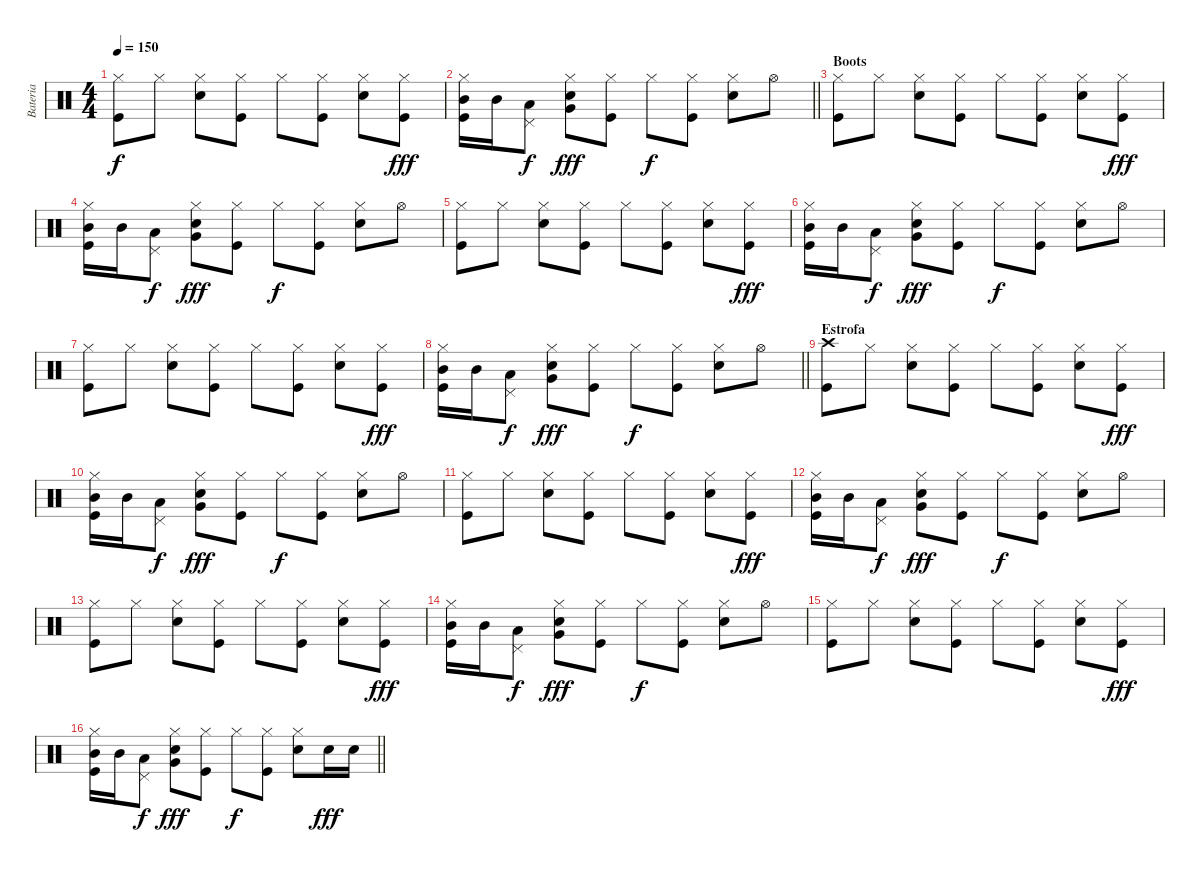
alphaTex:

\track ("Bateria" "Bateria") {instrument percussion}
\staff {score}
\articulation defaults
\ts (4 4)
\tempo 150
\clef neutral
\ks c
("Hi-Hat (closed)" "Kick (hit)").8{dy f} "Hi-Hat (closed)".8 ("Hi-Hat (closed)" "Electric Snare (hit)").8 ("Hi-Hat (closed)" "Kick (hit)").8 "Hi-Hat (closed)".8 ("Hi-Hat (closed)" "Kick (hit)").8 ("Hi-Hat (closed)" "Electric Snare (hit)").8 ("Hi-Hat (closed)" "Kick (hit)").8{dy fff} |
\barLineRight lightlight
("Hi-Hat (closed)" "Kick (hit)" "Mid Tom (hit)").16 "Mid Tom (hit)".16 ("Pedal Hi-Hat (hit)" "Low Tom (hit)").8{dy f} ("Hi-Hat (closed)" "Very Low Tom (hit)" "Electric Snare (hit)").8{dy fff} ("Hi-Hat (closed)" "Kick (hit)").8 "Hi-Hat (closed)".8{dy f} ("Hi-Hat (closed)" "Kick (hit)").8 ("Hi-Hat (closed)" "Electric Snare (hit)").8 "Hi-Hat (open)".8 |
\section ("" "Boots")
("Hi-Hat (closed)" "Kick (hit)").8 "Hi-Hat (closed)".8 ("Hi-Hat (closed)" "Electric Snare (hit)").8 ("Hi-Hat (closed)" "Kick (hit)").8 "Hi-Hat (closed)".8 ("Hi-Hat (closed)" "Kick (hit)").8 ("Hi-Hat (closed)" "Electric Snare (hit)").8 ("Hi-Hat (closed)" "Kick (hit)").8{dy fff} |
("Hi-Hat (closed)" "Kick (hit)" "Mid Tom (hit)").16 "Mid Tom (hit)".16 ("Pedal Hi-Hat (hit)" "Low Tom (hit)").8{dy f} ("Hi-Hat (closed)" "Very Low Tom (hit)" "Electric Snare (hit)").8{dy fff} ("Hi-Hat (closed)" "Kick (hit)").8 "Hi-Hat (closed)".8{dy f} ("Hi-Hat (closed)" "Kick (hit)").8 ("Hi-Hat (closed)" "Electric Snare (hit)").8 "Hi-Hat (open)".8 |
("Hi-Hat (closed)" "Kick (hit)").8 "Hi-Hat (closed)".8 ("Hi-Hat (closed)" "Electric Snare (hit)").8 ("Hi-Hat (closed)" "Kick (hit)").8 "Hi-Hat (closed)".8 ("Hi-Hat (closed)" "Kick (hit)").8 ("Hi-Hat (closed)" "Electric Snare (hit)").8 ("Hi-Hat (closed)" "Kick (hit)").8{dy fff} |
("Hi-Hat (closed)" "Kick (hit)" "Mid Tom (hit)").16 "Mid Tom (hit)".16 ("Pedal Hi-Hat (hit)" "Low Tom (hit)").8{dy f} ("Hi-Hat (closed)" "Very Low Tom (hit)" "Electric Snare (hit)").8{dy fff} ("Hi-Hat (closed)" "Kick (hit)").8 "Hi-Hat (closed)".8{dy f} ("Hi-Hat (closed)" "Kick (hit)").8 ("Hi-Hat (closed)" "Electric Snare (hit)").8 "Hi-Hat (open)".8 |
("Hi-Hat (closed)" "Kick (hit)").8 "Hi-Hat (closed)".8 ("Hi-Hat (closed)" "Electric Snare (hit)").8 ("Hi-Hat (closed)" "Kick (hit)").8 "Hi-Hat (closed)".8 ("Hi-Hat (closed)" "Kick (hit)").8 ("Hi-Hat (closed)" "Electric Snare (hit)").8 ("Hi-Hat (closed)" "Kick (hit)").8{dy fff} |
\barLineRight lightlight
("Hi-Hat (closed)" "Kick (hit)" "Mid Tom (hit)").16 "Mid Tom (hit)".16 ("Pedal Hi-Hat (hit)" "Low Tom (hit)").8{dy f} ("Hi-Hat (closed)" "Very Low Tom (hit)" "Electric Snare (hit)").8{dy fff} ("Hi-Hat (closed)" "Kick (hit)").8 "Hi-Hat (closed)".8{dy f} ("Hi-Hat (closed)" "Kick (hit)").8 ("Hi-Hat (closed)" "Electric Snare (hit)").8 "Hi-Hat (open)".8 |
\section ("" "Estrofa")
("Crash high (hit)" "Kick (hit)").8 "Hi-Hat (closed)".8 ("Hi-Hat (closed)" "Electric Snare (hit)").8 ("Hi-Hat (closed)" "Kick (hit)").8 "Hi-Hat (closed)".8 ("Hi-Hat (closed)" "Kick (hit)").8 ("Hi-Hat (closed)" "Electric Snare (hit)").8 ("Hi-Hat (closed)" "Kick (hit)").8{dy fff} |
("Hi-Hat (closed)" "Kick (hit)" "Mid Tom (hit)").16 "Mid Tom (hit)".16 ("Pedal Hi-Hat (hit)" "Low Tom (hit)").8{dy f} ("Hi-Hat (closed)" "Very Low Tom (hit)" "Electric Snare (hit)").8{dy fff} ("Hi-Hat (closed)" "Kick (hit)").8 "Hi-Hat (closed)".8{dy f} ("Hi-Hat (closed)" "Kick (hit)").8 ("Hi-Hat (closed)" "Electric Snare (hit)").8 "Hi-Hat (open)".8 |
("Hi-Hat (closed)" "Kick (hit)").8 "Hi-Hat (closed)".8 ("Hi-Hat (closed)" "Electric Snare (hit)").8 ("Hi-Hat (closed)" "Kick (hit)").8 "Hi-Hat (closed)".8 ("Hi-Hat (closed)" "Kick (hit)").8 ("Hi-Hat (closed)" "Electric Snare (hit)").8 ("Hi-Hat (closed)" "Kick (hit)").8{dy fff} |
("Hi-Hat (closed)" "Kick (hit)" "Mid Tom (hit)").16 "Mid Tom (hit)".16 ("Pedal Hi-Hat (hit)" "Low Tom (hit)").8{dy f} ("Hi-Hat (closed)" "Very Low Tom (hit)" "Electric Snare (hit)").8{dy fff} ("Hi-Hat (closed)" "Kick (hit)").8 "Hi-Hat (closed)".8{dy f} ("Hi-Hat (closed)" "Kick (hit)").8 ("Hi-Hat (closed)" "Electric Snare (hit)").8 "Hi-Hat (open)".8 |
("Hi-Hat (closed)" "Kick (hit)").8 "Hi-Hat (closed)".8 ("Hi-Hat (closed)" "Electric Snare (hit)").8 ("Hi-Hat (closed)" "Kick (hit)").8 "Hi-Hat (closed)".8 ("Hi-Hat (closed)" "Kick (hit)").8 ("Hi-Hat (closed)" "Electric Snare (hit)").8 ("Hi-Hat (closed)" "Kick (hit)").8{dy fff} |
("Hi-Hat (closed)" "Kick (hit)" "Mid Tom (hit)").16 "Mid Tom (hit)".16 ("Pedal Hi-Hat (hit)" "Low Tom (hit)").8{dy f} ("Hi-Hat (closed)" "Very Low Tom (hit)" "Electric Snare (hit)").8{dy fff} ("Hi-Hat (closed)" "Kick (hit)").8 "Hi-Hat (closed)".8{dy f} ("Hi-Hat (closed)" "Kick (hit)").8 ("Hi-Hat (closed)" "Electric Snare (hit)").8 "Hi-Hat (open)".8 |
("Hi-Hat (closed)" "Kick (hit)").8 "Hi-Hat (closed)".8 ("Hi-Hat (closed)" "Electric Snare (hit)").8 ("Hi-Hat (closed)" "Kick (hit)").8 "Hi-Hat (closed)".8 ("Hi-Hat (closed)" "Kick (hit)").8 ("Hi-Hat (closed)" "Electric Snare (hit)").8 ("Hi-Hat (closed)" "Kick (hit)").8{dy fff} |
\barLineRight lightlight
("Hi-Hat (closed)" "Kick (hit)" "Mid Tom (hit)").16 "Mid Tom (hit)".16 ("Pedal Hi-Hat (hit)" "Low Tom (hit)").8{dy f} ("Hi-Hat (closed)" "Very Low Tom (hit)" "Electric Snare (hit)").8{dy fff} ("Hi-Hat (closed)" "Kick (hit)").8 "Hi-Hat (closed)".8{dy f} ("Hi-Hat (closed)" "Kick (hit)").8 ("Hi-Hat (closed)" "Electric Snare (hit)").8 "Electric Snare (hit)".16{dy fff} "Electric Snare (hit)".16
